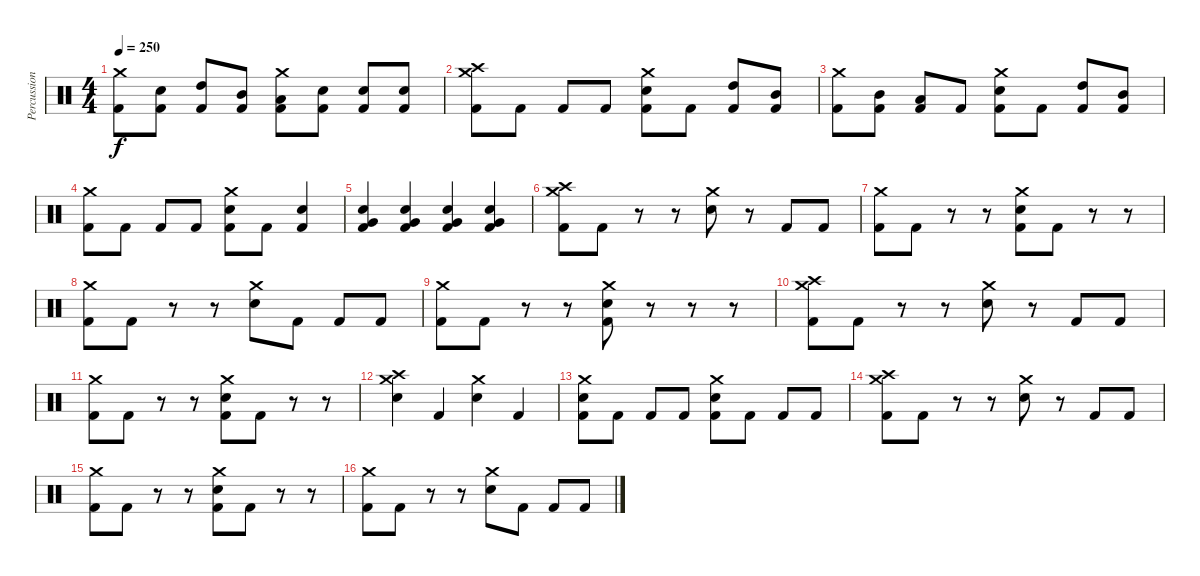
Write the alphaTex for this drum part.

\track ("Percussion" "Percussion") {instrument percussion}
\staff {score}
\articulation defaults
\ts (4 4)
\tempo 250
\clef neutral
\ks c
("Crash medium (hit)" "Kick (hit) 2").8{dy f} ("Electric Snare (hit)" "Kick (hit) 2").8 ("High Tom (hit)" "Kick (hit) 2").8 ("Mid Tom (hit)" "Kick (hit) 2").8 ("Crash medium (hit)" "Low Tom (hit)" "Kick (hit) 2").8 ("Electric Snare (hit)" "Kick (hit) 2").8 ("Electric Snare (hit)" "Kick (hit) 2").8 ("Electric Snare (hit)" "Kick (hit) 2").8 |
("Crash high (hit)" "Crash medium (hit)" "Kick (hit) 2").8 "Kick (hit) 2".8 "Kick (hit) 2".8 "Kick (hit) 2".8 ("Crash medium (hit)" "Electric Snare (hit)" "Kick (hit) 2").8 "Kick (hit) 2".8 ("High Tom (hit)" "Kick (hit) 2").8 ("Mid Tom (hit)" "Kick (hit) 2").8 |
("Crash medium (hit)" "Kick (hit) 2").8 ("Mid Tom (hit)" "Kick (hit) 2").8 ("Low Tom (hit)" "Kick (hit) 2").8 "Kick (hit) 2".8 ("Crash medium (hit)" "Electric Snare (hit)" "Kick (hit) 2").8 "Kick (hit) 2".8 ("High Tom (hit)" "Kick (hit) 2").8 ("Mid Tom (hit)" "Kick (hit) 2").8 |
("Crash medium (hit)" "Kick (hit) 2").8 "Kick (hit) 2".8 "Kick (hit) 2".8 "Kick (hit) 2".8 ("Crash medium (hit)" "Electric Snare (hit)" "Kick (hit) 2").8 "Kick (hit) 2".8 ("Electric Snare (hit)" "Kick (hit) 2").4 |
("Electric Snare (hit)" "Very Low Tom (hit)" "Kick (hit) 2").4 ("Electric Snare (hit)" "Very Low Tom (hit)" "Kick (hit) 2").4 ("Electric Snare (hit)" "Very Low Tom (hit)" "Kick (hit) 2").4 ("Electric Snare (hit)" "Very Low Tom (hit)" "Kick (hit) 2").4 |
("Crash high (hit)" "Crash medium (hit)" "Kick (hit) 2").8 "Kick (hit) 2".8 r.8 r.8 ("Crash medium (hit)" "Electric Snare (hit)").8 r.8 "Kick (hit) 2".8 "Kick (hit) 2".8 |
("Crash medium (hit)" "Kick (hit) 2").8 "Kick (hit) 2".8 r.8 r.8 ("Crash medium (hit)" "Electric Snare (hit)" "Kick (hit) 2").8 "Kick (hit) 2".8 r.8 r.8 |
("Crash medium (hit)" "Kick (hit) 2").8 "Kick (hit) 2".8 r.8 r.8 ("Crash medium (hit)" "Electric Snare (hit)").8 "Kick (hit) 2".8 "Kick (hit) 2".8 "Kick (hit) 2".8 |
("Crash medium (hit)" "Kick (hit) 2").8 "Kick (hit) 2".8 r.8 r.8 ("Crash medium (hit)" "Electric Snare (hit)" "Kick (hit) 2").8 r.8 r.8 r.8 |
("Crash high (hit)" "Crash medium (hit)" "Kick (hit) 2").8 "Kick (hit) 2".8 r.8 r.8 ("Crash medium (hit)" "Electric Snare (hit)").8 r.8 "Kick (hit) 2".8 "Kick (hit) 2".8 |
("Crash medium (hit)" "Kick (hit) 2").8 "Kick (hit) 2".8 r.8 r.8 ("Crash medium (hit)" "Electric Snare (hit)" "Kick (hit) 2").8 "Kick (hit) 2".8 r.8 r.8 |
("Crash high (hit)" "Crash medium (hit)" "Electric Snare (hit)").4 "Kick (hit) 2".4 ("Crash medium (hit)" "Electric Snare (hit)").4 "Kick (hit) 2".4 |
("Crash medium (hit)" "Electric Snare (hit)" "Kick (hit) 2").8 "Kick (hit) 2".8 "Kick (hit) 2".8 "Kick (hit) 2".8 ("Crash medium (hit)" "Electric Snare (hit)" "Kick (hit) 2").8 "Kick (hit) 2".8 "Kick (hit) 2".8 "Kick (hit) 2".8 |
("Crash high (hit)" "Crash medium (hit)" "Kick (hit) 2").8 "Kick (hit) 2".8 r.8 r.8 ("Crash medium (hit)" "Electric Snare (hit)").8 r.8 "Kick (hit) 2".8 "Kick (hit) 2".8 |
("Crash medium (hit)" "Kick (hit) 2").8 "Kick (hit) 2".8 r.8 r.8 ("Crash medium (hit)" "Electric Snare (hit)" "Kick (hit) 2").8 "Kick (hit) 2".8 r.8 r.8 |
("Crash medium (hit)" "Kick (hit) 2").8 "Kick (hit) 2".8 r.8 r.8 ("Crash medium (hit)" "Electric Snare (hit)").8 "Kick (hit) 2".8 "Kick (hit) 2".8 "Kick (hit) 2".8
